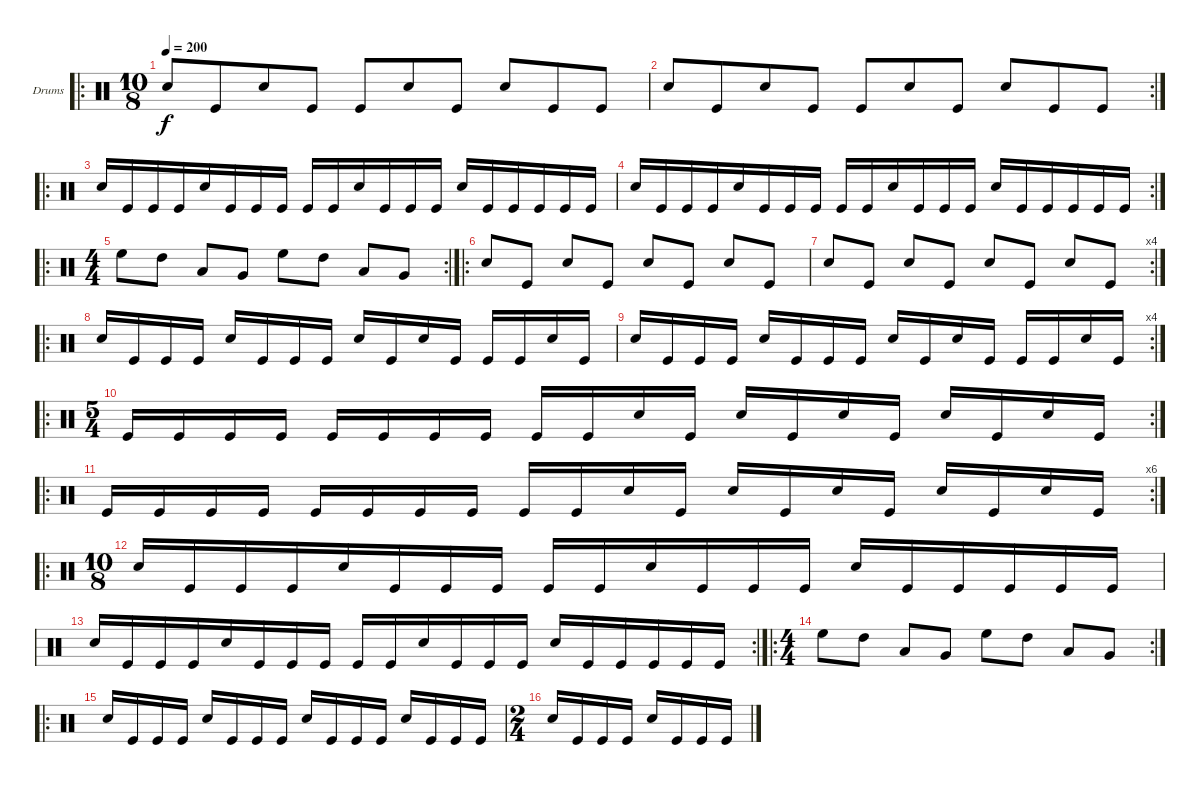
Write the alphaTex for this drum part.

\defaultSystemsLayout 4
\bracketExtendMode groupsimilarinstruments
\firstSystemTrackNameOrientation horizontal
\otherSystemsTrackNameOrientation horizontal
\track ("Corpse Blaster" "Drums") {instrument percussion}
\staff {score}
\articulation defaults
\ro
\ts (10 8)
\tempo 200
\clef neutral
\scale
0.384354
\ks c "Snare (hit) 2".8{dy f} "Kick (hit)".8 "Snare (hit) 2".8 "Kick (hit)".8 "Kick (hit)".8 "Snare (hit) 2".8 "Kick (hit)".8 "Snare (hit) 2".8 "Kick (hit)".8 "Kick (hit)".8
|
\rc 2
\scale
0.210884 "Snare (hit) 2".8 "Kick (hit)".8 "Snare (hit) 2".8 "Kick (hit)".8 "Kick (hit)".8 "Snare (hit) 2".8 "Kick (hit)".8 "Snare (hit) 2".8 "Kick (hit)".8 "Kick (hit)".8 |
\ro "Snare (hit) 2".16 "Kick (hit)".16 "Kick (hit)".16 "Kick (hit)".16 "Snare (hit) 2".16 "Kick (hit)".16 "Kick (hit)".16 "Kick (hit)".16 "Kick (hit)".16 "Kick (hit)".16 "Snare (hit) 2".16 "Kick (hit)".16 "Kick (hit)".16 "Kick (hit)".16 "Snare (hit) 2".16 "Kick (hit)".16 "Kick (hit)".16 "Kick (hit)".16 "Kick (hit)".16 "Kick (hit)".16
|
\rc 2 "Snare (hit) 2".16 "Kick (hit)".16 "Kick (hit)".16 "Kick (hit)".16 "Snare (hit) 2".16 "Kick (hit)".16 "Kick (hit)".16 "Kick (hit)".16 "Kick (hit)".16 "Kick (hit)".16 "Snare (hit) 2".16 "Kick (hit)".16 "Kick (hit)".16 "Kick (hit)".16 "Snare (hit) 2".16 "Kick (hit)".16 "Kick (hit)".16 "Kick (hit)".16 "Kick (hit)".16 "Kick (hit)".16
|
\ro
\rc 2
\ts (4 4)
\scale
0.404762 "High Floor Tom (hit)".8 "High Tom (hit)".8 "Low Tom (hit)".8 "Very Low Tom (hit)".8 "High Floor Tom (hit)".8 "High Tom (hit)".8 "Low Tom (hit)".8 "Very Low Tom (hit)".8 |
\ro "Snare (hit) 2".8 "Kick (hit)".8 "Snare (hit) 2".8 "Kick (hit)".8 "Snare (hit) 2".8 "Kick (hit)".8 "Snare (hit) 2".8 "Kick (hit)".8
|
\rc 4 "Snare (hit) 2".8 "Kick (hit)".8 "Snare (hit) 2".8 "Kick (hit)".8 "Snare (hit) 2".8 "Kick (hit)".8 "Snare (hit) 2".8 "Kick (hit)".8
|
\ro
\scale
0.333333 "Snare (hit) 2".16 "Kick (hit)".16 "Kick (hit)".16 "Kick (hit)".16 "Snare (hit) 2".16 "Kick (hit)".16 "Kick (hit)".16 "Kick (hit)".16 "Snare (hit) 2".16 "Kick (hit)".16 "Snare (hit) 2".16 "Kick (hit)".16 "Kick (hit)".16 "Kick (hit)".16 "Snare (hit) 2".16 "Kick (hit)".16 |
\rc 4
\scale
0.303922 "Snare (hit) 2".16 "Kick (hit)".16 "Kick (hit)".16 "Kick (hit)".16 "Snare (hit) 2".16 "Kick (hit)".16 "Kick (hit)".16 "Kick (hit)".16 "Snare (hit) 2".16 "Kick (hit)".16 "Snare (hit) 2".16 "Kick (hit)".16 "Kick (hit)".16 "Kick (hit)".16 "Snare (hit) 2".16 "Kick (hit)".16 |
\ro
\rc 2
\ts (5 4)
\scale
0.362745 "Kick (hit)".16 "Kick (hit)".16 "Kick (hit)".16 "Kick (hit)".16 "Kick (hit)".16 "Kick (hit)".16 "Kick (hit)".16 "Kick (hit)".16 "Kick (hit)".16 "Kick (hit)".16 "Snare (hit) 2".16 "Kick (hit)".16 "Snare (hit) 2".16 "Kick (hit)".16 "Snare (hit) 2".16 "Kick (hit)".16 "Snare (hit) 2".16 "Kick (hit)".16 "Snare (hit) 2".16 "Kick (hit)".16 |
\ro
\rc 6
\scale
0.362745 "Kick (hit)".16 "Kick (hit)".16 "Kick (hit)".16 "Kick (hit)".16 "Kick (hit)".16 "Kick (hit)".16 "Kick (hit)".16 "Kick (hit)".16 "Kick (hit)".16 "Kick (hit)".16 "Snare (hit) 2".16 "Kick (hit)".16 "Snare (hit) 2".16 "Kick (hit)".16 "Snare (hit) 2".16 "Kick (hit)".16 "Snare (hit) 2".16 "Kick (hit)".16 "Snare (hit) 2".16 "Kick (hit)".16 |
\ro
\ts (10 8)
"Snare (hit) 2".16 "Kick (hit)".16 "Kick (hit)".16 "Kick (hit)".16 "Snare (hit) 2".16 "Kick (hit)".16 "Kick (hit)".16 "Kick (hit)".16 "Kick (hit)".16 "Kick (hit)".16 "Snare (hit) 2".16 "Kick (hit)".16 "Kick (hit)".16 "Kick (hit)".16 "Snare (hit) 2".16 "Kick (hit)".16 "Kick (hit)".16 "Kick (hit)".16 "Kick (hit)".16 "Kick (hit)".16 |
\rc 2 "Snare (hit) 2".16 "Kick (hit)".16 "Kick (hit)".16 "Kick (hit)".16 "Snare (hit) 2".16 "Kick (hit)".16 "Kick (hit)".16 "Kick (hit)".16 "Kick (hit)".16 "Kick (hit)".16 "Snare (hit) 2".16 "Kick (hit)".16 "Kick (hit)".16 "Kick (hit)".16 "Snare (hit) 2".16 "Kick (hit)".16 "Kick (hit)".16 "Kick (hit)".16 "Kick (hit)".16 "Kick (hit)".16
|
\ro
\rc 2
\ts (4 4)
"High Floor Tom (hit)".8 "High Tom (hit)".8 "Low Tom (hit)".8 "Very Low Tom (hit)".8 "High Floor Tom (hit)".8 "High Tom (hit)".8 "Low Tom (hit)".8 "Very Low Tom (hit)".8 |
\ro
\scale
0.333333 "Snare (hit) 2".16 "Kick (hit)".16 "Kick (hit)".16 "Kick (hit)".16 "Snare (hit) 2".16 "Kick (hit)".16 "Kick (hit)".16 "Kick (hit)".16 "Snare (hit) 2".16 "Kick (hit)".16 "Kick (hit)".16 "Kick (hit)".16 "Snare (hit) 2".16 "Kick (hit)".16 "Kick (hit)".16 "Kick (hit)".16 |
\ts (2 4)
\scale
0.303922 "Snare (hit) 2".16 "Kick (hit)".16 "Kick (hit)".16 "Kick (hit)".16 "Snare (hit) 2".16 "Kick (hit)".16 "Kick (hit)".16 "Kick (hit)".16
